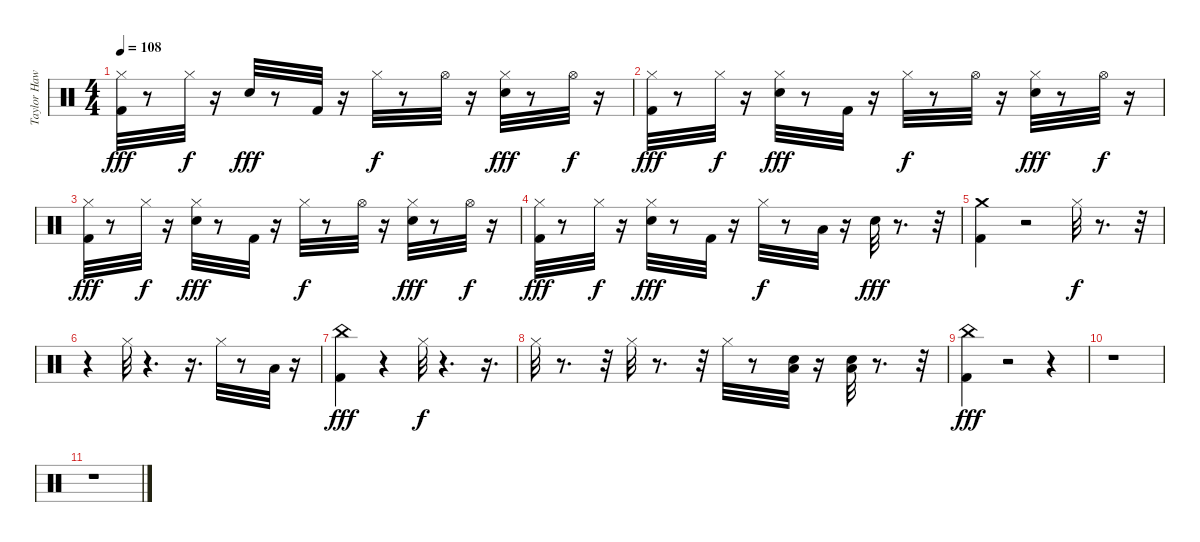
\track ("Taylor Hawkins" "Taylor Haw") {instrument percussion}
\staff {score}
\articulation defaults
\ts (4 4)
\tempo 108
\clef neutral
\ks c
("Hi-Hat (closed)" "Kick (hit) 2").32{dy fff} r.8 "Hi-Hat (closed)".32{dy f} r.16 "Snare (hit) 2".32{dy fff} r.8 "Kick (hit) 2".32 r.16 "Hi-Hat (closed)".32{dy f} r.8 "Hi-Hat (open)".32 r.16 ("Hi-Hat (closed)" "Snare (hit) 2").32{dy fff} r.8 "Hi-Hat (open)".32{dy f} r.16 |
("Hi-Hat (closed)" "Kick (hit) 2").32{dy fff} r.8 "Hi-Hat (closed)".32{dy f} r.16 ("Hi-Hat (closed)" "Snare (hit) 2").32{dy fff} r.8 "Kick (hit) 2".32 r.16 "Hi-Hat (closed)".32{dy f} r.8 "Hi-Hat (open)".32 r.16 ("Hi-Hat (closed)" "Snare (hit) 2").32{dy fff} r.8 "Hi-Hat (open)".32{dy f} r.16 |
("Hi-Hat (closed)" "Kick (hit) 2").32{dy fff} r.8 "Hi-Hat (closed)".32{dy f} r.16 ("Hi-Hat (closed)" "Snare (hit) 2").32{dy fff} r.8 "Kick (hit) 2".32 r.16 "Hi-Hat (closed)".32{dy f} r.8 "Hi-Hat (open)".32 r.16 ("Hi-Hat (closed)" "Snare (hit) 2").32{dy fff} r.8 "Hi-Hat (open)".32{dy f} r.16 |
("Hi-Hat (closed)" "Kick (hit) 2").32{dy fff} r.8 "Hi-Hat (closed)".32{dy f} r.16 ("Hi-Hat (closed)" "Snare (hit) 2").32{dy fff} r.8 "Kick (hit) 2".32 r.16 "Hi-Hat (closed)".32{dy f} r.8 "Low Tom (hit)".32 r.16 "Snare (hit) 2".32{dy fff} r.8{d} r.32 |
("Crash medium (hit)" "Kick (hit) 2").4 r.2 "Hi-Hat (closed)".32{dy f} r.8{d} r.32 |
r.4 "Hi-Hat (closed)".32 r.4{d} r.16{d} "Hi-Hat (closed)".32 r.8 "Low Floor Tom (hit)".32 r.16 |
("China (hit)" "Kick (hit) 2").4{dy fff} r.4 "Hi-Hat (closed)".32{dy f} r.4{d} r.16{d} |
"Hi-Hat (closed)".32 r.8{d} r.32 "Hi-Hat (closed)".32 r.8{d} r.32 "Hi-Hat (closed)".32 r.8 ("Snare (hit) 2" "Low Floor Tom (hit)").32 r.16 ("Snare (hit) 2" "Low Tom (hit)").32 r.8{d} r.32 |
("China (hit)" "Kick (hit) 2").4{dy fff} r.2 r.4 |
r.1 |
r.1
